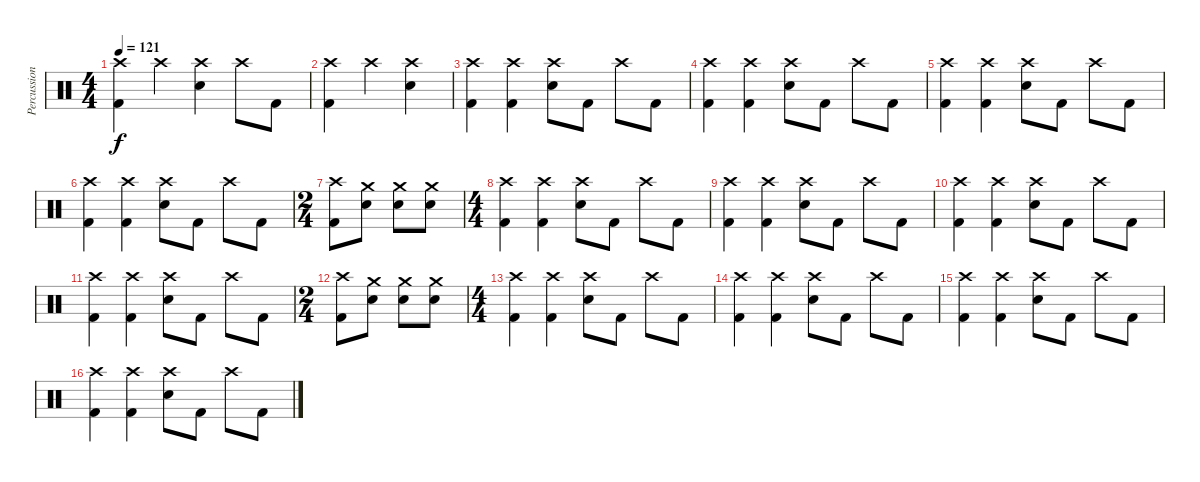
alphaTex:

\track ("Percussion" "Percussion") {instrument percussion}
\staff {score}
\articulation defaults
\ts (4 4)
\tempo 121
\clef neutral
\ks c
("Crash high (hit)" "Kick (hit) 2").4{dy f} "Crash high (hit)".4 ("Crash high (hit)" "Snare (hit) 2").4 "Crash high (hit)".8 "Kick (hit) 2".8 |
("Crash high (hit)" "Kick (hit) 2").4 "Crash high (hit)".4 ("Crash high (hit)" "Snare (hit) 2").4 |
("Crash high (hit)" "Kick (hit) 2").4 ("Crash high (hit)" "Kick (hit) 2").4 ("Crash high (hit)" "Snare (hit) 2").8 "Kick (hit) 2".8 "Crash high (hit)".8 "Kick (hit) 2".8 |
("Crash high (hit)" "Kick (hit) 2").4 ("Crash high (hit)" "Kick (hit) 2").4 ("Crash high (hit)" "Snare (hit) 2").8 "Kick (hit) 2".8 "Crash high (hit)".8 "Kick (hit) 2".8 |
("Crash high (hit)" "Kick (hit) 2").4 ("Crash high (hit)" "Kick (hit) 2").4 ("Crash high (hit)" "Snare (hit) 2").8 "Kick (hit) 2".8 "Crash high (hit)".8 "Kick (hit) 2".8 |
("Crash high (hit)" "Kick (hit) 2").4 ("Crash high (hit)" "Kick (hit) 2").4 ("Crash high (hit)" "Snare (hit) 2").8 "Kick (hit) 2".8 "Crash high (hit)".8 "Kick (hit) 2".8 |
\ts (2 4)
("Crash high (hit)" "Kick (hit) 2").8 ("Crash medium (hit)" "Snare (hit) 2").8 ("Crash medium (hit)" "Snare (hit) 2").8 ("Crash medium (hit)" "Snare (hit) 2").8 |
\ts (4 4)
("Crash high (hit)" "Kick (hit) 2").4 ("Crash high (hit)" "Kick (hit) 2").4 ("Crash high (hit)" "Snare (hit) 2").8 "Kick (hit) 2".8 "Crash high (hit)".8 "Kick (hit) 2".8 |
("Crash high (hit)" "Kick (hit) 2").4 ("Crash high (hit)" "Kick (hit) 2").4 ("Crash high (hit)" "Snare (hit) 2").8 "Kick (hit) 2".8 "Crash high (hit)".8 "Kick (hit) 2".8 |
("Crash high (hit)" "Kick (hit) 2").4 ("Crash high (hit)" "Kick (hit) 2").4 ("Crash high (hit)" "Snare (hit) 2").8 "Kick (hit) 2".8 "Crash high (hit)".8 "Kick (hit) 2".8 |
("Crash high (hit)" "Kick (hit) 2").4 ("Crash high (hit)" "Kick (hit) 2").4 ("Crash high (hit)" "Snare (hit) 2").8 "Kick (hit) 2".8 "Crash high (hit)".8 "Kick (hit) 2".8 |
\ts (2 4)
("Crash high (hit)" "Kick (hit) 2").8 ("Crash medium (hit)" "Snare (hit) 2").8 ("Crash medium (hit)" "Snare (hit) 2").8 ("Crash medium (hit)" "Snare (hit) 2").8 |
\ts (4 4)
("Crash high (hit)" "Kick (hit) 2").4 ("Crash high (hit)" "Kick (hit) 2").4 ("Crash high (hit)" "Snare (hit) 2").8 "Kick (hit) 2".8 "Crash high (hit)".8 "Kick (hit) 2".8 |
("Crash high (hit)" "Kick (hit) 2").4 ("Crash high (hit)" "Kick (hit) 2").4 ("Crash high (hit)" "Snare (hit) 2").8 "Kick (hit) 2".8 "Crash high (hit)".8 "Kick (hit) 2".8 |
("Crash high (hit)" "Kick (hit) 2").4 ("Crash high (hit)" "Kick (hit) 2").4 ("Crash high (hit)" "Snare (hit) 2").8 "Kick (hit) 2".8 "Crash high (hit)".8 "Kick (hit) 2".8 |
("Crash high (hit)" "Kick (hit) 2").4 ("Crash high (hit)" "Kick (hit) 2").4 ("Crash high (hit)" "Snare (hit) 2").8 "Kick (hit) 2".8 "Crash high (hit)".8 "Kick (hit) 2".8
